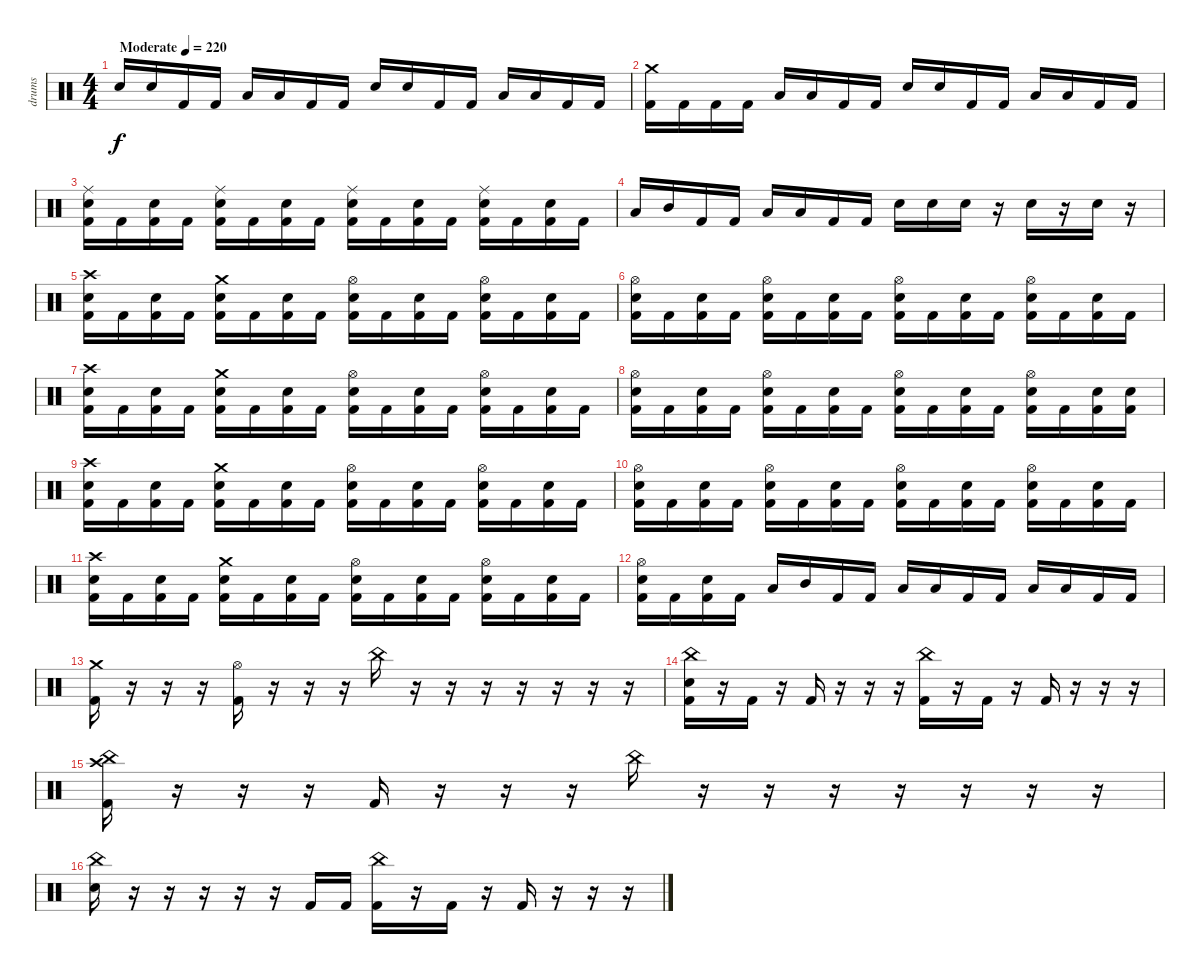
\track ("drums" "drums") {instrument percussion}
\staff {score}
\articulation defaults
\ts (4 4)
\tempo (220 "Moderate")
\clef neutral
\ks c "Electric Snare (hit)".16{dy f} "Electric Snare (hit)".16 "Kick (hit) 2".16 "Kick (hit) 2".16 "Low Floor Tom (hit)".16 "Low Tom (hit)".16 "Kick (hit) 2".16 "Kick (hit) 2".16 "Electric Snare (hit)".16 "Electric Snare (hit)".16 "Kick (hit) 2".16 "Kick (hit) 2".16 "Low Floor Tom (hit)".16 "Low Tom (hit)".16 "Kick (hit) 2".16 "Kick (hit) 2".16
|
("Crash medium (hit)" "Kick (hit) 2").16 "Kick (hit) 2".16 "Kick (hit) 2".16 "Kick (hit) 2".16 "Low Floor Tom (hit)".16 "Low Tom (hit)".16 "Kick (hit) 2".16 "Kick (hit) 2".16 "Electric Snare (hit)".16 "Electric Snare (hit)".16 "Kick (hit) 2".16 "Kick (hit) 2".16 "Low Floor Tom (hit)".16 "Low Tom (hit)".16 "Kick (hit) 2".16 "Kick (hit) 2".16 |
("Ride (middle)" "Electric Snare (hit)" "Kick (hit) 2").16 "Kick (hit) 2".16 ("Electric Snare (hit)" "Kick (hit) 2").16 "Kick (hit) 2".16 ("Ride (middle)" "Electric Snare (hit)" "Kick (hit) 2").16 "Kick (hit) 2".16 ("Electric Snare (hit)" "Kick (hit) 2").16 "Kick (hit) 2".16 ("Ride (middle)" "Electric Snare (hit)" "Kick (hit) 2").16 "Kick (hit) 2".16 ("Electric Snare (hit)" "Kick (hit) 2").16 "Kick (hit) 2".16 ("Ride (middle)" "Electric Snare (hit)" "Kick (hit) 2").16 "Kick (hit) 2".16 ("Electric Snare (hit)" "Kick (hit) 2").16 "Kick (hit) 2".16 |
"Low Floor Tom (hit)".16 "Mid Tom (hit)".16 "Kick (hit) 2".16 "Kick (hit) 2".16 "Low Floor Tom (hit)".16 "Low Tom (hit)".16 "Kick (hit) 2".16 "Kick (hit) 2".16 "Electric Snare (hit)".16 "Electric Snare (hit)".16 "Electric Snare (hit)".16 r.16 "Electric Snare (hit)".16 r.16 "Electric Snare (hit)".16 r.16 |
("Crash high (hit)" "Electric Snare (hit)" "Kick (hit) 2").16 "Kick (hit) 2".16 ("Electric Snare (hit)" "Kick (hit) 2").16 "Kick (hit) 2".16 ("Crash medium (hit)" "Electric Snare (hit)" "Kick (hit) 2").16 "Kick (hit) 2".16 ("Electric Snare (hit)" "Kick (hit) 2").16 "Kick (hit) 2".16 ("Hi-Hat (open)" "Electric Snare (hit)" "Kick (hit) 2").16 "Kick (hit) 2".16 ("Electric Snare (hit)" "Kick (hit) 2").16 "Kick (hit) 2".16 ("Hi-Hat (open)" "Electric Snare (hit)" "Kick (hit) 2").16 "Kick (hit) 2".16 ("Electric Snare (hit)" "Kick (hit) 2").16 "Kick (hit) 2".16 |
("Hi-Hat (open)" "Electric Snare (hit)" "Kick (hit) 2").16 "Kick (hit) 2".16 ("Electric Snare (hit)" "Kick (hit) 2").16 "Kick (hit) 2".16 ("Hi-Hat (open)" "Electric Snare (hit)" "Kick (hit) 2").16 "Kick (hit) 2".16 ("Electric Snare (hit)" "Kick (hit) 2").16 "Kick (hit) 2".16 ("Hi-Hat (open)" "Electric Snare (hit)" "Kick (hit) 2").16 "Kick (hit) 2".16 ("Electric Snare (hit)" "Kick (hit) 2").16 "Kick (hit) 2".16 ("Hi-Hat (open)" "Electric Snare (hit)" "Kick (hit) 2").16 "Kick (hit) 2".16 ("Electric Snare (hit)" "Kick (hit) 2").16 "Kick (hit) 2".16 |
("Crash high (hit)" "Electric Snare (hit)" "Kick (hit) 2").16 "Kick (hit) 2".16 ("Electric Snare (hit)" "Kick (hit) 2").16 "Kick (hit) 2".16 ("Crash medium (hit)" "Electric Snare (hit)" "Kick (hit) 2").16 "Kick (hit) 2".16 ("Electric Snare (hit)" "Kick (hit) 2").16 "Kick (hit) 2".16 ("Hi-Hat (open)" "Electric Snare (hit)" "Kick (hit) 2").16 "Kick (hit) 2".16 ("Electric Snare (hit)" "Kick (hit) 2").16 "Kick (hit) 2".16 ("Hi-Hat (open)" "Electric Snare (hit)" "Kick (hit) 2").16 "Kick (hit) 2".16 ("Electric Snare (hit)" "Kick (hit) 2").16 "Kick (hit) 2".16 |
("Hi-Hat (open)" "Electric Snare (hit)" "Kick (hit) 2").16 "Kick (hit) 2".16 ("Electric Snare (hit)" "Kick (hit) 2").16 "Kick (hit) 2".16 ("Hi-Hat (open)" "Electric Snare (hit)" "Kick (hit) 2").16 "Kick (hit) 2".16 ("Electric Snare (hit)" "Kick (hit) 2").16 "Kick (hit) 2".16 ("Hi-Hat (open)" "Electric Snare (hit)" "Kick (hit) 2").16 "Kick (hit) 2".16 ("Electric Snare (hit)" "Kick (hit) 2").16 "Kick (hit) 2".16 ("Hi-Hat (open)" "Electric Snare (hit)" "Kick (hit) 2").16 "Kick (hit) 2".16 ("Electric Snare (hit)" "Kick (hit) 2").16 ("Electric Snare (hit)" "Kick (hit) 2").16 |
("Crash high (hit)" "Electric Snare (hit)" "Kick (hit) 2").16 "Kick (hit) 2".16 ("Electric Snare (hit)" "Kick (hit) 2").16 "Kick (hit) 2".16 ("Crash medium (hit)" "Electric Snare (hit)" "Kick (hit) 2").16 "Kick (hit) 2".16 ("Electric Snare (hit)" "Kick (hit) 2").16 "Kick (hit) 2".16 ("Hi-Hat (open)" "Electric Snare (hit)" "Kick (hit) 2").16 "Kick (hit) 2".16 ("Electric Snare (hit)" "Kick (hit) 2").16 "Kick (hit) 2".16 ("Hi-Hat (open)" "Electric Snare (hit)" "Kick (hit) 2").16 "Kick (hit) 2".16 ("Electric Snare (hit)" "Kick (hit) 2").16 "Kick (hit) 2".16 |
("Hi-Hat (open)" "Electric Snare (hit)" "Kick (hit) 2").16 "Kick (hit) 2".16 ("Electric Snare (hit)" "Kick (hit) 2").16 "Kick (hit) 2".16 ("Hi-Hat (open)" "Electric Snare (hit)" "Kick (hit) 2").16 "Kick (hit) 2".16 ("Electric Snare (hit)" "Kick (hit) 2").16 "Kick (hit) 2".16 ("Hi-Hat (open)" "Electric Snare (hit)" "Kick (hit) 2").16 "Kick (hit) 2".16 ("Electric Snare (hit)" "Kick (hit) 2").16 "Kick (hit) 2".16 ("Hi-Hat (open)" "Electric Snare (hit)" "Kick (hit) 2").16 "Kick (hit) 2".16 ("Electric Snare (hit)" "Kick (hit) 2").16 "Kick (hit) 2".16 |
("Crash high (hit)" "Electric Snare (hit)" "Kick (hit) 2").16 "Kick (hit) 2".16 ("Electric Snare (hit)" "Kick (hit) 2").16 "Kick (hit) 2".16 ("Crash medium (hit)" "Electric Snare (hit)" "Kick (hit) 2").16 "Kick (hit) 2".16 ("Electric Snare (hit)" "Kick (hit) 2").16 "Kick (hit) 2".16 ("Hi-Hat (open)" "Electric Snare (hit)" "Kick (hit) 2").16 "Kick (hit) 2".16 ("Electric Snare (hit)" "Kick (hit) 2").16 "Kick (hit) 2".16 ("Hi-Hat (open)" "Electric Snare (hit)" "Kick (hit) 2").16 "Kick (hit) 2".16 ("Electric Snare (hit)" "Kick (hit) 2").16 "Kick (hit) 2".16 |
("Hi-Hat (open)" "Electric Snare (hit)" "Kick (hit) 2").16 "Kick (hit) 2".16 ("Electric Snare (hit)" "Kick (hit) 2").16 "Kick (hit) 2".16 "Low Floor Tom (hit)".16 "Mid Tom (hit)".16 "Kick (hit) 2".16 "Kick (hit) 2".16 "Low Floor Tom (hit)".16 "Low Tom (hit)".16 "Kick (hit) 2".16 "Kick (hit) 2".16 "Low Floor Tom (hit)".16 "Low Floor Tom (hit)".16 "Kick (hit) 2".16 "Kick (hit) 2".16 |
("Crash medium (hit)" "Kick (hit) 2").16 r.16 r.16 r.16 ("Hi-Hat (open)" "Kick (hit) 2").16 r.16 r.16 r.16 "China (hit)".16 r.16 r.16 r.16 r.16 r.16 r.16 r.16 |
("China (hit)" "Electric Snare (hit)" "Kick (hit) 2").16 r.16 "Kick (hit) 2".16 r.16 "Kick (hit) 2".16 r.16 r.16 r.16 ("China (hit)" "Kick (hit) 2").16 r.16 "Kick (hit) 2".16 r.16 "Kick (hit) 2".16 r.16 r.16 r.16 |
("Crash high (hit)" "China (hit)" "Kick (hit) 2").16 r.16 r.16 r.16 "Kick (hit) 2".16 r.16 r.16 r.16 "China (hit)".16 r.16 r.16 r.16 r.16 r.16 r.16 r.16 |
("China (hit)" "Electric Snare (hit)").16 r.16 r.16 r.16 r.16 r.16 "Kick (hit) 2".16 "Kick (hit) 2".16 ("China (hit)" "Kick (hit) 2").16 r.16 "Kick (hit) 2".16 r.16 "Kick (hit) 2".16 r.16 r.16 r.16
